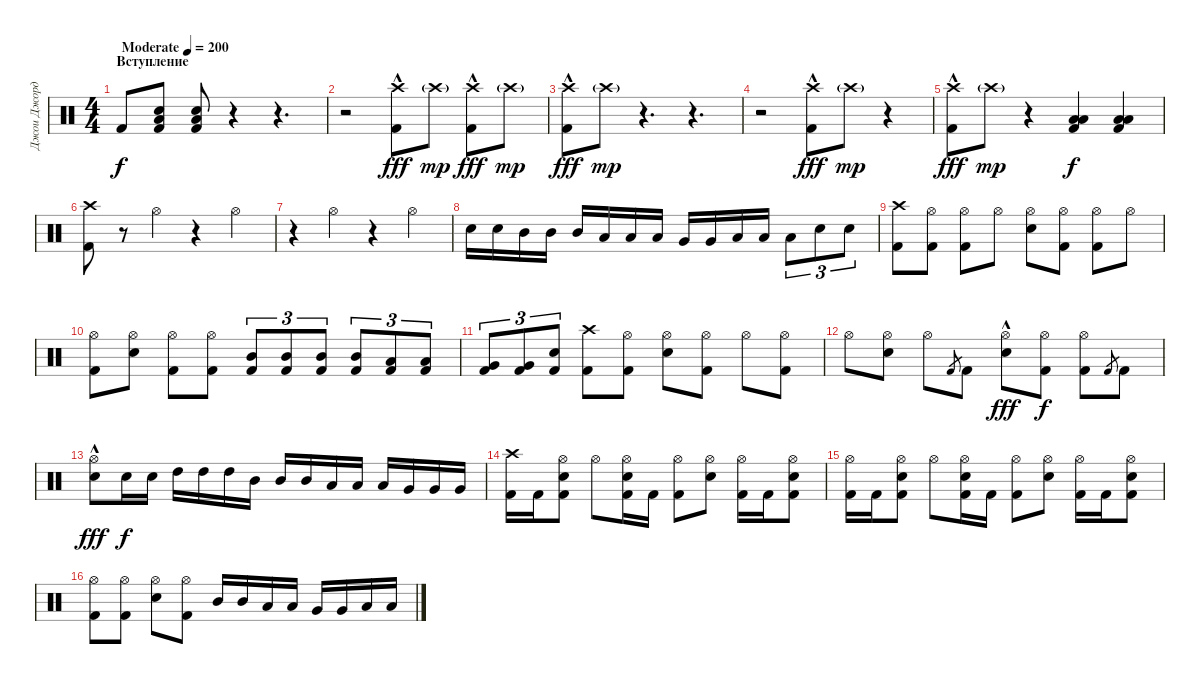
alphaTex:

\track ("Джои Джордисон" "Джои Джорд") {instrument percussion}
\staff {score}
\articulation defaults
\ts (4 4)
\section ("" "Вступление")
\tempo (200 "Moderate")
\clef neutral
\ks c "Kick (hit) 2".8{dy f}
("Low Floor Tom (hit)" "Electric Snare (hit)" "Kick (hit) 2").8 ("Low Floor Tom (hit)" "Electric Snare (hit)" "Kick (hit) 2").8 r.4 r.4{d} |
r.2 ("Crash high (hit)"{hac} "Kick (hit) 2").8{dy fff} "Crash high (hit)"{g}.8{dy mp} ("Crash high (hit)"{hac} "Kick (hit) 2").8{dy fff} "Crash high (hit)"{g}.8{dy mp} |
("Crash high (hit)"{hac} "Kick (hit) 2").8{dy fff} "Crash high (hit)"{g}.8{dy mp} r.4{d} r.4{d} |
r.2 ("Crash high (hit)"{hac} "Kick (hit) 2").8{dy fff} "Crash high (hit)"{g}.8{dy mp} r.4 |
("Crash high (hit)"{hac} "Kick (hit) 2").8{dy fff} "Crash high (hit)"{g}.8{dy mp} r.4 ("Low Tom (hit)" "Low Floor Tom (hit)" "Kick (hit) 2").4{dy f} ("Low Tom (hit)" "Low Floor Tom (hit)" "Kick (hit) 2").4 |
("Crash high (hit)" "Kick (hit) 2").8 r.8 "Hi-Hat (open)".4 r.4 "Hi-Hat (open)".4 |
r.4 "Hi-Hat (open)".4 r.4 "Hi-Hat (open)".4 |
"Electric Snare (hit)".16 "Electric Snare (hit)".16 "Mid Tom (hit)".16 "Mid Tom (hit)".16 "Mid Tom (hit)".16 "Low Tom (hit)".16 "Low Tom (hit)".16 "Low Tom (hit)".16 "Very Low Tom (hit)".16 "Very Low Tom (hit)".16 "Low Floor Tom (hit)".16 "Low Floor Tom (hit)".16 "Low Floor Tom (hit)".8{tu (3 2)} "Electric Snare (hit)".8{tu (3 2)} "Electric Snare (hit)".8{tu (3 2)} |
("Crash high (hit)" "Kick (hit) 2").8 ("Hi-Hat (open)" "Kick (hit) 2").8 ("Hi-Hat (open)" "Kick (hit) 2").8 "Hi-Hat (open)".8 ("Hi-Hat (open)" "Electric Snare (hit)").8 ("Hi-Hat (open)" "Kick (hit) 2").8 ("Hi-Hat (open)" "Kick (hit) 2").8 "Hi-Hat (open)".8 |
("Hi-Hat (open)" "Kick (hit) 2").8 ("Hi-Hat (open)" "Electric Snare (hit)").8 ("Hi-Hat (open)" "Kick (hit) 2").8 ("Hi-Hat (open)" "Kick (hit) 2").8 ("Mid Tom (hit)" "Kick (hit) 2").8{tu (3 2)} ("Mid Tom (hit)" "Kick (hit) 2").8{tu (3 2)} ("Mid Tom (hit)" "Kick (hit) 2").8{tu (3 2)} ("Mid Tom (hit)" "Kick (hit) 2").8{tu (3 2)} ("Low Tom (hit)" "Kick (hit) 2").8{tu (3 2)} ("Low Tom (hit)" "Kick (hit) 2").8{tu (3 2)} |
("Very Low Tom (hit)" "Kick (hit) 2").8{tu (3 2)} ("Very Low Tom (hit)" "Kick (hit) 2").8{tu (3 2)} ("Electric Snare (hit)" "Kick (hit) 2").8{tu (3 2)} ("Crash high (hit)" "Kick (hit) 2").8 ("Hi-Hat (open)" "Kick (hit) 2").8 ("Hi-Hat (open)" "Electric Snare (hit)").8 ("Hi-Hat (open)" "Kick (hit) 2").8 "Hi-Hat (open)".8 ("Hi-Hat (open)" "Kick (hit) 2").8 |
"Hi-Hat (open)".8 ("Hi-Hat (open)" "Electric Snare (hit)").8 "Hi-Hat (open)".8 "Kick (hit) 2".8{gr} "Kick (hit) 2".8 ("Hi-Hat (open)"{hac} "Electric Snare (hit)").8{dy fff} ("Hi-Hat (open)" "Kick (hit) 2").8{dy f} ("Hi-Hat (open)" "Kick (hit) 2").8 "Kick (hit) 2".8{gr} "Kick (hit) 2".8 |
("Hi-Hat (open)"{hac} "Electric Snare (hit)").8{dy fff} "Electric Snare (hit)".16{dy f} "Electric Snare (hit)".16 "High Tom (hit)".16 "High Tom (hit)".16 "High Tom (hit)".16 "Mid Tom (hit)".16 "Mid Tom (hit)".16 "Mid Tom (hit)".16 "Low Tom (hit)".16 "Low Tom (hit)".16 "Low Tom (hit)".16 "Very Low Tom (hit)".16 "Very Low Tom (hit)".16 "Very Low Tom (hit)".16 |
("Crash high (hit)" "Kick (hit) 2").16 "Kick (hit) 2".16 ("Hi-Hat (open)" "Electric Snare (hit)" "Kick (hit) 2").8 "Hi-Hat (open)".8 ("Hi-Hat (open)" "Electric Snare (hit)" "Kick (hit) 2").16 "Kick (hit) 2".16 ("Hi-Hat (open)" "Kick (hit) 2").8 ("Hi-Hat (open)" "Electric Snare (hit)").8 ("Hi-Hat (open)" "Kick (hit) 2").16 "Kick (hit) 2".16 ("Hi-Hat (open)" "Electric Snare (hit)" "Kick (hit) 2").8 |
("Hi-Hat (open)" "Kick (hit) 2").16 "Kick (hit) 2".16 ("Hi-Hat (open)" "Electric Snare (hit)" "Kick (hit) 2").8 "Hi-Hat (open)".8 ("Hi-Hat (open)" "Electric Snare (hit)" "Kick (hit) 2").16 "Kick (hit) 2".16 ("Hi-Hat (open)" "Kick (hit) 2").8 ("Hi-Hat (open)" "Electric Snare (hit)").8 ("Hi-Hat (open)" "Kick (hit) 2").16 "Kick (hit) 2".16 ("Hi-Hat (open)" "Electric Snare (hit)" "Kick (hit) 2").8 |
("Hi-Hat (open)" "Kick (hit) 2").8 ("Hi-Hat (open)" "Kick (hit) 2").8 ("Hi-Hat (open)" "Electric Snare (hit)").8 ("Hi-Hat (open)" "Kick (hit) 2").8 "Mid Tom (hit)".16 "Mid Tom (hit)".16 "Low Tom (hit)".16 "Low Tom (hit)".16 "Very Low Tom (hit)".16 "Very Low Tom (hit)".16 "Low Floor Tom (hit)".16 "Low Floor Tom (hit)".16
